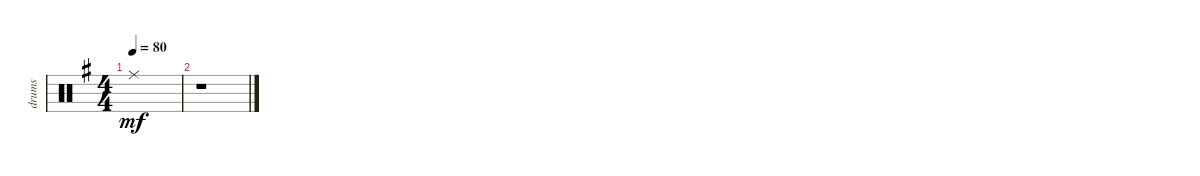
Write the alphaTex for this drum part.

\track ("drums" "drums") {instrument percussion}
\staff {score}
\articulation defaults
\ts (4 4)
\tempo 80
\clef neutral
\ks g "Ride (middle)".1{dy mf}
|
r.1
